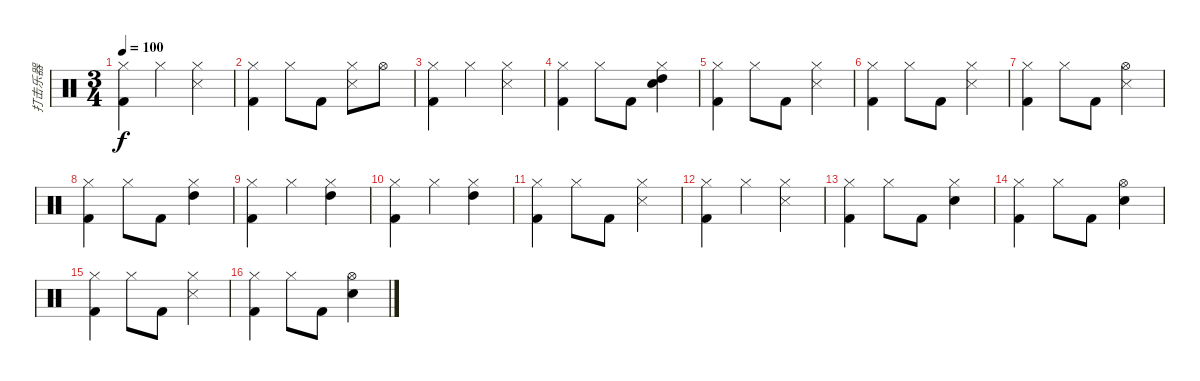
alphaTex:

\track ("打击乐器" "打击乐器") {instrument percussion}
\staff {score}
\articulation defaults
\ts (3 4)
\tempo 100
\clef neutral
\ks c
("Hi-Hat (closed)" "Kick (hit) 2").4{dy f} "Hi-Hat (closed)".4 ("Hi-Hat (closed)" "Snare (side stick) 3").4 |
("Hi-Hat (closed)" "Kick (hit) 2").4 "Hi-Hat (closed)".8 "Kick (hit) 2".8 ("Hi-Hat (closed)" "Snare (side stick) 3").8 "Hi-Hat (open)".8 |
("Hi-Hat (closed)" "Kick (hit) 2").4 "Hi-Hat (closed)".4 ("Hi-Hat (closed)" "Snare (side stick) 3").4 |
("Hi-Hat (closed)" "Kick (hit) 2").4 "Hi-Hat (closed)".8 "Kick (hit) 2".8 ("Hi-Hat (closed)" "High Tom (hit)" "Electric Snare (hit)").4 |
("Hi-Hat (closed)" "Kick (hit) 2").4 "Hi-Hat (closed)".8 "Kick (hit) 2".8 ("Hi-Hat (closed)" "Snare (side stick) 3").4 |
("Hi-Hat (closed)" "Kick (hit) 2").4 "Hi-Hat (closed)".8 "Kick (hit) 2".8 ("Hi-Hat (closed)" "Snare (side stick) 3").4 |
("Hi-Hat (closed)" "Kick (hit) 2").4 "Hi-Hat (closed)".8 "Kick (hit) 2".8 ("Hi-Hat (open)" "Snare (side stick) 3").4 |
("Hi-Hat (closed)" "Kick (hit) 2").4 "Hi-Hat (closed)".8 "Kick (hit) 2".8 ("Hi-Hat (closed)" "High Tom (hit)").4 |
("Hi-Hat (closed)" "Kick (hit) 2").4 "Hi-Hat (closed)".4 ("Hi-Hat (closed)" "High Tom (hit)").4 |
("Hi-Hat (closed)" "Kick (hit) 2").4 "Hi-Hat (closed)".4 ("Hi-Hat (closed)" "High Tom (hit)").4 |
("Hi-Hat (closed)" "Kick (hit) 2").4 "Hi-Hat (closed)".8 "Kick (hit) 2".8 ("Hi-Hat (closed)" "Snare (side stick) 3").4 |
("Hi-Hat (closed)" "Kick (hit) 2").4 "Hi-Hat (closed)".4 ("Hi-Hat (closed)" "Snare (side stick) 3").4 |
("Hi-Hat (closed)" "Kick (hit) 2").4 "Hi-Hat (closed)".8 "Kick (hit) 2".8 ("Hi-Hat (closed)" "Electric Snare (hit)").4 |
("Hi-Hat (closed)" "Kick (hit) 2").4 "Hi-Hat (closed)".8 "Kick (hit) 2".8 ("Hi-Hat (open)" "Electric Snare (hit)").4 |
("Hi-Hat (closed)" "Kick (hit) 2").4 "Hi-Hat (closed)".8 "Kick (hit) 2".8 ("Hi-Hat (closed)" "Snare (side stick) 3").4 |
("Hi-Hat (closed)" "Kick (hit) 2").4 "Hi-Hat (closed)".8 "Kick (hit) 2".8 ("Hi-Hat (open)" "Electric Snare (hit)").4
